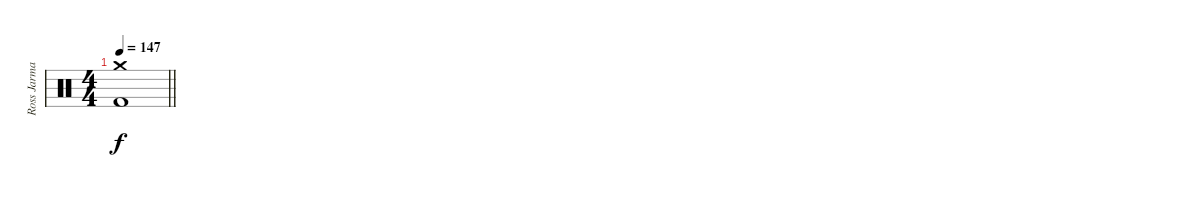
\track ("Ross Jarman (Drums)" "Ross Jarma") {instrument percussion}
\staff {score}
\articulation defaults
\ts (4 4)
\tempo 147
\clef neutral
\barLineRight lightlight
\ks c
("Crash medium (hit)"{t} "Kick (hit) 2"{t}).1{dy f}
